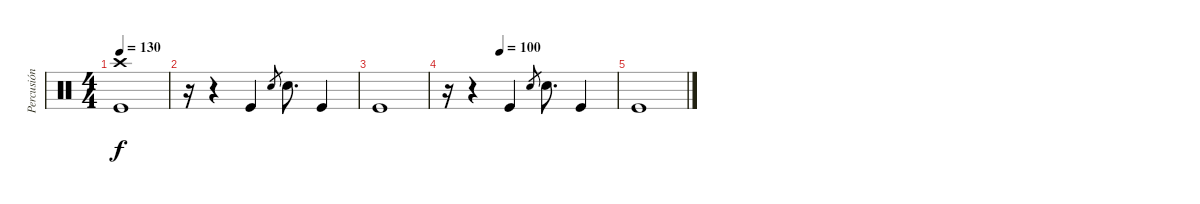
\track ("Percusión" "Percusión") {instrument percussion}
\staff {score}
\articulation defaults
\ts (4 4)
\tempo 130
\clef neutral
\ks c
("Kick (hit)" "Crash high (hit)").1{dy f} |
r.16 r.4 "Kick (hit)".4 "Electric Snare (hit)".8{gr} "Electric Snare (hit)".8{d} "Kick (hit)".4 |
"Kick (hit)".1 |
\tempo (100 0.3125)
r.16 r.4 "Kick (hit)".4{volume 16} "Electric Snare (hit)".8{gr} "Electric Snare (hit)".8{d} "Kick (hit)".4 |
"Kick (hit)".1
